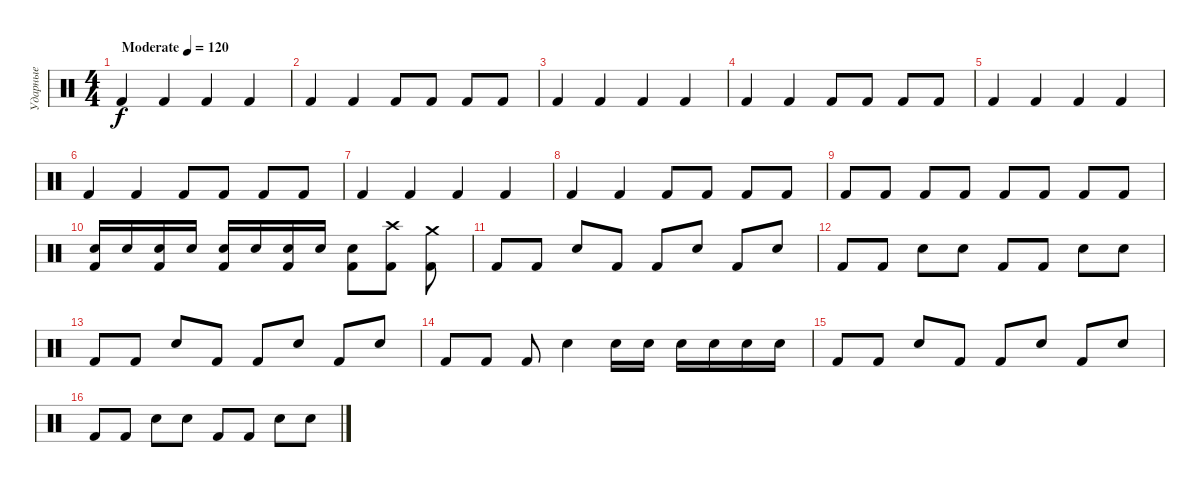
\track ("Ударные" "Ударные") {instrument percussion}
\staff {score}
\articulation defaults
\ts (4 4)
\tempo (120 "Moderate")
\clef neutral
\ks c "Kick (hit) 2".4{dy f} "Kick (hit) 2".4 "Kick (hit) 2".4 "Kick (hit) 2".4
|
"Kick (hit) 2".4 "Kick (hit) 2".4 "Kick (hit) 2".8 "Kick (hit) 2".8 "Kick (hit) 2".8 "Kick (hit) 2".8 |
"Kick (hit) 2".4 "Kick (hit) 2".4 "Kick (hit) 2".4 "Kick (hit) 2".4 |
"Kick (hit) 2".4 "Kick (hit) 2".4 "Kick (hit) 2".8 "Kick (hit) 2".8 "Kick (hit) 2".8 "Kick (hit) 2".8 |
"Kick (hit) 2".4 "Kick (hit) 2".4 "Kick (hit) 2".4 "Kick (hit) 2".4 |
"Kick (hit) 2".4 "Kick (hit) 2".4 "Kick (hit) 2".8 "Kick (hit) 2".8 "Kick (hit) 2".8 "Kick (hit) 2".8 |
"Kick (hit) 2".4 "Kick (hit) 2".4 "Kick (hit) 2".4 "Kick (hit) 2".4 |
"Kick (hit) 2".4 "Kick (hit) 2".4 "Kick (hit) 2".8 "Kick (hit) 2".8 "Kick (hit) 2".8 "Kick (hit) 2".8 |
"Kick (hit) 2".8 "Kick (hit) 2".8 "Kick (hit) 2".8 "Kick (hit) 2".8 "Kick (hit) 2".8 "Kick (hit) 2".8 "Kick (hit) 2".8 "Kick (hit) 2".8 |
("Snare (hit) 2" "Kick (hit) 2").16 "Snare (hit) 2".16 ("Snare (hit) 2" "Kick (hit) 2").16 "Snare (hit) 2".16 ("Snare (hit) 2" "Kick (hit) 2").16 "Snare (hit) 2".16 ("Snare (hit) 2" "Kick (hit) 2").16 "Snare (hit) 2".16 ("Snare (hit) 2" "Kick (hit) 2").8 ("Kick (hit) 2" "Crash high (hit)").8 ("Kick (hit) 2" "Crash medium (hit)").8 |
"Kick (hit) 2".8 "Kick (hit) 2".8 "Snare (hit) 2".8 "Kick (hit) 2".8 "Kick (hit) 2".8 "Snare (hit) 2".8 "Kick (hit) 2".8 "Snare (hit) 2".8 |
"Kick (hit) 2".8 "Kick (hit) 2".8 "Snare (hit) 2".8 "Snare (hit) 2".8 "Kick (hit) 2".8 "Kick (hit) 2".8 "Snare (hit) 2".8 "Snare (hit) 2".8 |
"Kick (hit) 2".8 "Kick (hit) 2".8 "Snare (hit) 2".8 "Kick (hit) 2".8 "Kick (hit) 2".8 "Snare (hit) 2".8 "Kick (hit) 2".8 "Snare (hit) 2".8 |
"Kick (hit) 2".8 "Kick (hit) 2".8 "Kick (hit) 2".8 "Snare (hit) 2".4 "Snare (hit) 2".16 "Snare (hit) 2".16 "Snare (hit) 2".16 "Snare (hit) 2".16 "Snare (hit) 2".16 "Snare (hit) 2".16 |
"Kick (hit) 2".8 "Kick (hit) 2".8 "Snare (hit) 2".8 "Kick (hit) 2".8 "Kick (hit) 2".8 "Snare (hit) 2".8 "Kick (hit) 2".8 "Snare (hit) 2".8 |
"Kick (hit) 2".8 "Kick (hit) 2".8 "Snare (hit) 2".8 "Snare (hit) 2".8 "Kick (hit) 2".8 "Kick (hit) 2".8 "Snare (hit) 2".8 "Snare (hit) 2".8
